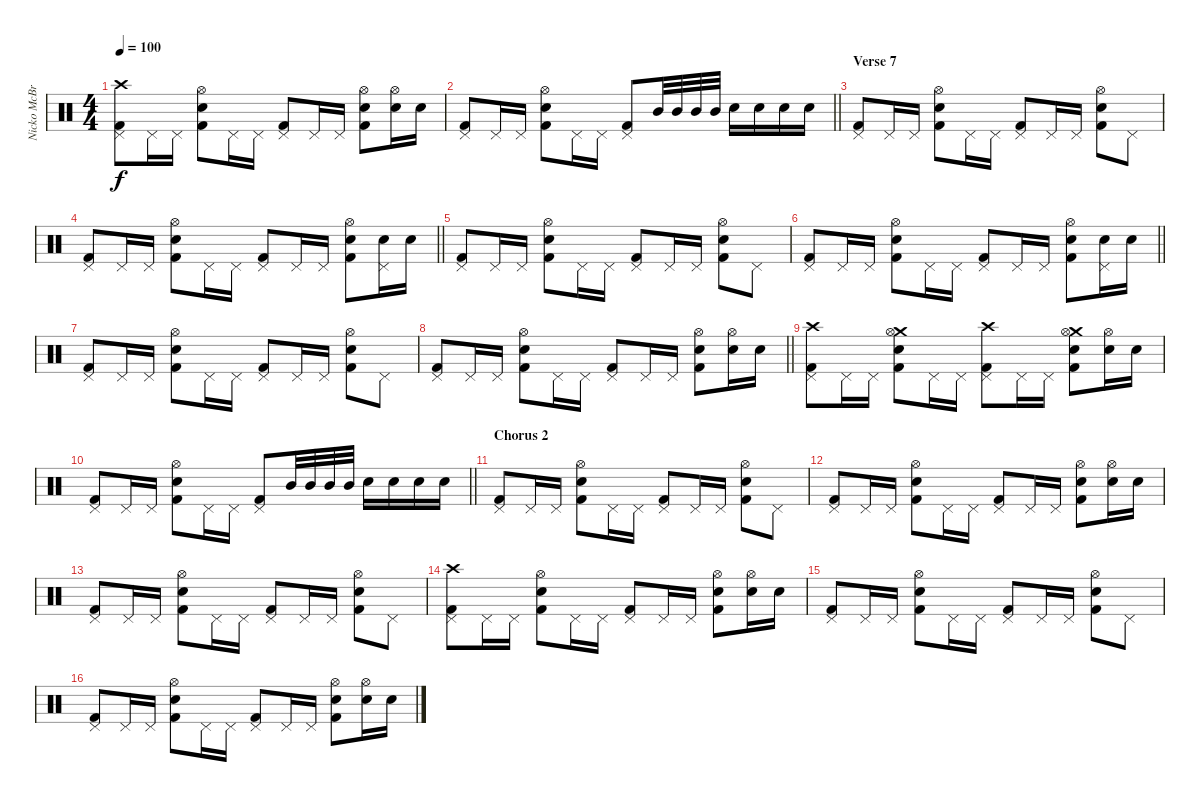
\track ("Nicko McBrain" "Nicko McBr") {instrument percussion}
\staff {score}
\articulation defaults
\ts (4 4)
\tempo 100
\clef neutral
\ks c
("Crash high (hit)" "Pedal Hi-Hat (hit)" "Kick (hit) 2").8{dy f} "Pedal Hi-Hat (hit)".16 "Pedal Hi-Hat (hit)".16 ("Electric Snare (hit)" "Hi-Hat (open)" "Kick (hit) 2").8 "Pedal Hi-Hat (hit)".16 "Pedal Hi-Hat (hit)".16 ("Pedal Hi-Hat (hit)" "Kick (hit) 2").8 "Pedal Hi-Hat (hit)".16 "Pedal Hi-Hat (hit)".16 ("Electric Snare (hit)" "Hi-Hat (open)" "Kick (hit) 2").8 ("Hi-Hat (open)" "Electric Snare (hit)").16 "Electric Snare (hit)".16 |
\barLineRight lightlight
("Pedal Hi-Hat (hit)" "Kick (hit) 2").8 "Pedal Hi-Hat (hit)".16 "Pedal Hi-Hat (hit)".16 ("Electric Snare (hit)" "Hi-Hat (open)" "Kick (hit) 2").8 "Pedal Hi-Hat (hit)".16 "Pedal Hi-Hat (hit)".16 ("Pedal Hi-Hat (hit)" "Kick (hit) 2").8 "Mid Tom (hit)".32 "Mid Tom (hit)".32 "Mid Tom (hit)".32 "Mid Tom (hit)".32 "Electric Snare (hit)".16 "Electric Snare (hit)".16 "Electric Snare (hit)".16 "Electric Snare (hit)".16 |
\section ("" "Verse 7")
("Pedal Hi-Hat (hit)" "Kick (hit) 2").8 "Pedal Hi-Hat (hit)".16 "Pedal Hi-Hat (hit)".16 ("Electric Snare (hit)" "Hi-Hat (open)" "Kick (hit) 2").8 "Pedal Hi-Hat (hit)".16 "Pedal Hi-Hat (hit)".16 ("Pedal Hi-Hat (hit)" "Kick (hit) 2").8 "Pedal Hi-Hat (hit)".16 "Pedal Hi-Hat (hit)".16 ("Electric Snare (hit)" "Hi-Hat (open)" "Kick (hit) 2").8 "Pedal Hi-Hat (hit)".8 |
\barLineRight lightlight
("Pedal Hi-Hat (hit)" "Kick (hit) 2").8 "Pedal Hi-Hat (hit)".16 "Pedal Hi-Hat (hit)".16 ("Electric Snare (hit)" "Hi-Hat (open)" "Kick (hit) 2").8 "Pedal Hi-Hat (hit)".16 "Pedal Hi-Hat (hit)".16 ("Pedal Hi-Hat (hit)" "Kick (hit) 2").8 "Pedal Hi-Hat (hit)".16 "Pedal Hi-Hat (hit)".16 ("Electric Snare (hit)" "Hi-Hat (open)" "Kick (hit) 2").8 ("Pedal Hi-Hat (hit)" "Electric Snare (hit)").16 "Electric Snare (hit)".16 |
("Pedal Hi-Hat (hit)" "Kick (hit) 2").8 "Pedal Hi-Hat (hit)".16 "Pedal Hi-Hat (hit)".16 ("Electric Snare (hit)" "Hi-Hat (open)" "Kick (hit) 2").8 "Pedal Hi-Hat (hit)".16 "Pedal Hi-Hat (hit)".16 ("Pedal Hi-Hat (hit)" "Kick (hit) 2").8 "Pedal Hi-Hat (hit)".16 "Pedal Hi-Hat (hit)".16 ("Electric Snare (hit)" "Hi-Hat (open)" "Kick (hit) 2").8 "Pedal Hi-Hat (hit)".8 |
\barLineRight lightlight
("Pedal Hi-Hat (hit)" "Kick (hit) 2").8 "Pedal Hi-Hat (hit)".16 "Pedal Hi-Hat (hit)".16 ("Electric Snare (hit)" "Hi-Hat (open)" "Kick (hit) 2").8 "Pedal Hi-Hat (hit)".16 "Pedal Hi-Hat (hit)".16 ("Pedal Hi-Hat (hit)" "Kick (hit) 2").8 "Pedal Hi-Hat (hit)".16 "Pedal Hi-Hat (hit)".16 ("Electric Snare (hit)" "Hi-Hat (open)" "Kick (hit) 2").8 ("Pedal Hi-Hat (hit)" "Electric Snare (hit)").16 "Electric Snare (hit)".16 |
("Pedal Hi-Hat (hit)" "Kick (hit) 2").8 "Pedal Hi-Hat (hit)".16 "Pedal Hi-Hat (hit)".16 ("Electric Snare (hit)" "Hi-Hat (open)" "Kick (hit) 2").8 "Pedal Hi-Hat (hit)".16 "Pedal Hi-Hat (hit)".16 ("Pedal Hi-Hat (hit)" "Kick (hit) 2").8 "Pedal Hi-Hat (hit)".16 "Pedal Hi-Hat (hit)".16 ("Electric Snare (hit)" "Hi-Hat (open)" "Kick (hit) 2").8 "Pedal Hi-Hat (hit)".8 |
\barLineRight lightlight
("Pedal Hi-Hat (hit)" "Kick (hit) 2").8 "Pedal Hi-Hat (hit)".16 "Pedal Hi-Hat (hit)".16 ("Electric Snare (hit)" "Hi-Hat (open)" "Kick (hit) 2").8 "Pedal Hi-Hat (hit)".16 "Pedal Hi-Hat (hit)".16 ("Pedal Hi-Hat (hit)" "Kick (hit) 2").8 "Pedal Hi-Hat (hit)".16 "Pedal Hi-Hat (hit)".16 ("Electric Snare (hit)" "Hi-Hat (open)" "Kick (hit) 2").8 ("Hi-Hat (open)" "Electric Snare (hit)").16 "Electric Snare (hit)".16 |
("Crash high (hit)" "Pedal Hi-Hat (hit)" "Kick (hit) 2").8 "Pedal Hi-Hat (hit)".16 "Pedal Hi-Hat (hit)".16 ("Crash medium (hit)" "Electric Snare (hit)" "Hi-Hat (open)" "Kick (hit) 2").8 "Pedal Hi-Hat (hit)".16 "Pedal Hi-Hat (hit)".16 ("Crash high (hit)" "Pedal Hi-Hat (hit)" "Kick (hit) 2").8 "Pedal Hi-Hat (hit)".16 "Pedal Hi-Hat (hit)".16 ("Crash medium (hit)" "Electric Snare (hit)" "Hi-Hat (open)" "Kick (hit) 2").8 ("Hi-Hat (open)" "Electric Snare (hit)").16 "Electric Snare (hit)".16 |
\barLineRight lightlight
("Pedal Hi-Hat (hit)" "Kick (hit) 2").8 "Pedal Hi-Hat (hit)".16 "Pedal Hi-Hat (hit)".16 ("Electric Snare (hit)" "Hi-Hat (open)" "Kick (hit) 2").8 "Pedal Hi-Hat (hit)".16 "Pedal Hi-Hat (hit)".16 ("Pedal Hi-Hat (hit)" "Kick (hit) 2").8 "Mid Tom (hit)".32 "Mid Tom (hit)".32 "Mid Tom (hit)".32 "Mid Tom (hit)".32 "Electric Snare (hit)".16 "Electric Snare (hit)".16 "Electric Snare (hit)".16 "Electric Snare (hit)".16 |
\section ("" "Chorus 2")
("Pedal Hi-Hat (hit)" "Kick (hit) 2").8 "Pedal Hi-Hat (hit)".16 "Pedal Hi-Hat (hit)".16 ("Electric Snare (hit)" "Hi-Hat (open)" "Kick (hit) 2").8 "Pedal Hi-Hat (hit)".16 "Pedal Hi-Hat (hit)".16 ("Pedal Hi-Hat (hit)" "Kick (hit) 2").8 "Pedal Hi-Hat (hit)".16 "Pedal Hi-Hat (hit)".16 ("Electric Snare (hit)" "Hi-Hat (open)" "Kick (hit) 2").8 "Pedal Hi-Hat (hit)".8 |
("Pedal Hi-Hat (hit)" "Kick (hit) 2").8 "Pedal Hi-Hat (hit)".16 "Pedal Hi-Hat (hit)".16 ("Electric Snare (hit)" "Hi-Hat (open)" "Kick (hit) 2").8 "Pedal Hi-Hat (hit)".16 "Pedal Hi-Hat (hit)".16 ("Pedal Hi-Hat (hit)" "Kick (hit) 2").8 "Pedal Hi-Hat (hit)".16 "Pedal Hi-Hat (hit)".16 ("Electric Snare (hit)" "Hi-Hat (open)" "Kick (hit) 2").8 ("Hi-Hat (open)" "Electric Snare (hit)").16 "Electric Snare (hit)".16 |
("Pedal Hi-Hat (hit)" "Kick (hit) 2").8 "Pedal Hi-Hat (hit)".16 "Pedal Hi-Hat (hit)".16 ("Electric Snare (hit)" "Hi-Hat (open)" "Kick (hit) 2").8 "Pedal Hi-Hat (hit)".16 "Pedal Hi-Hat (hit)".16 ("Pedal Hi-Hat (hit)" "Kick (hit) 2").8 "Pedal Hi-Hat (hit)".16 "Pedal Hi-Hat (hit)".16 ("Electric Snare (hit)" "Hi-Hat (open)" "Kick (hit) 2").8 "Pedal Hi-Hat (hit)".8 |
("Crash high (hit)" "Pedal Hi-Hat (hit)" "Kick (hit) 2").8 "Pedal Hi-Hat (hit)".16 "Pedal Hi-Hat (hit)".16 ("Electric Snare (hit)" "Hi-Hat (open)" "Kick (hit) 2").8 "Pedal Hi-Hat (hit)".16 "Pedal Hi-Hat (hit)".16 ("Pedal Hi-Hat (hit)" "Kick (hit) 2").8 "Pedal Hi-Hat (hit)".16 "Pedal Hi-Hat (hit)".16 ("Electric Snare (hit)" "Hi-Hat (open)" "Kick (hit) 2").8 ("Hi-Hat (open)" "Electric Snare (hit)").16 "Electric Snare (hit)".16 |
("Pedal Hi-Hat (hit)" "Kick (hit) 2").8 "Pedal Hi-Hat (hit)".16 "Pedal Hi-Hat (hit)".16 ("Electric Snare (hit)" "Hi-Hat (open)" "Kick (hit) 2").8 "Pedal Hi-Hat (hit)".16 "Pedal Hi-Hat (hit)".16 ("Pedal Hi-Hat (hit)" "Kick (hit) 2").8 "Pedal Hi-Hat (hit)".16 "Pedal Hi-Hat (hit)".16 ("Electric Snare (hit)" "Hi-Hat (open)" "Kick (hit) 2").8 "Pedal Hi-Hat (hit)".8 |
("Pedal Hi-Hat (hit)" "Kick (hit) 2").8 "Pedal Hi-Hat (hit)".16 "Pedal Hi-Hat (hit)".16 ("Electric Snare (hit)" "Hi-Hat (open)" "Kick (hit) 2").8 "Pedal Hi-Hat (hit)".16 "Pedal Hi-Hat (hit)".16 ("Pedal Hi-Hat (hit)" "Kick (hit) 2").8 "Pedal Hi-Hat (hit)".16 "Pedal Hi-Hat (hit)".16 ("Electric Snare (hit)" "Hi-Hat (open)" "Kick (hit) 2").8 ("Hi-Hat (open)" "Electric Snare (hit)").16 "Electric Snare (hit)".16
